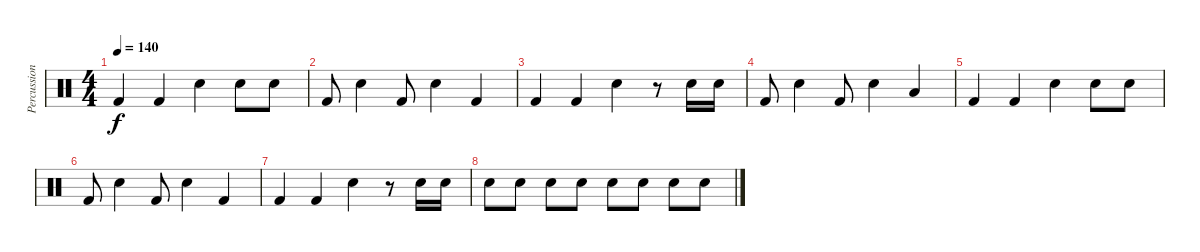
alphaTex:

\track ("Percussion" "Percussion") {instrument percussion}
\staff {score}
\articulation defaults
\ts (4 4)
\tempo 140
\clef neutral
\ks c "Kick (hit) 2".4{dy f} "Kick (hit) 2".4 "Electric Snare (hit)".4 "Electric Snare (hit)".8 "Electric Snare (hit)".8
|
"Kick (hit) 2".8 "Electric Snare (hit)".4 "Kick (hit) 2".8 "Electric Snare (hit)".4 "Kick (hit) 2".4 |
"Kick (hit) 2".4 "Kick (hit) 2".4 "Electric Snare (hit)".4 r.8 "Electric Snare (hit)".16 "Electric Snare (hit)".16 |
"Kick (hit) 2".8 "Electric Snare (hit)".4 "Kick (hit) 2".8 "Electric Snare (hit)".4 "Low Floor Tom (hit)".4 |
"Kick (hit) 2".4 "Kick (hit) 2".4 "Electric Snare (hit)".4 "Electric Snare (hit)".8 "Electric Snare (hit)".8 |
"Kick (hit) 2".8 "Electric Snare (hit)".4 "Kick (hit) 2".8 "Electric Snare (hit)".4 "Kick (hit) 2".4 |
"Kick (hit) 2".4 "Kick (hit) 2".4 "Electric Snare (hit)".4 r.8 "Electric Snare (hit)".16 "Electric Snare (hit)".16 |
"Electric Snare (hit)".8 "Electric Snare (hit)".8 "Electric Snare (hit)".8 "Electric Snare (hit)".8 "Electric Snare (hit)".8 "Electric Snare (hit)".8 "Electric Snare (hit)".8 "Electric Snare (hit)".8
